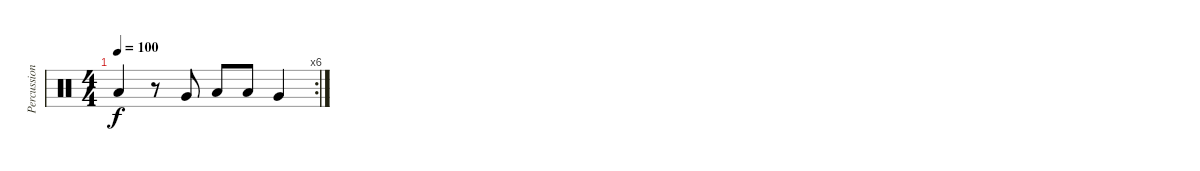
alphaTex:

\track ("Percussions" "Percussion") {instrument percussion}
\staff {score}
\articulation defaults
\rc 6
\ts (4 4)
\tempo 100
\clef neutral
\ks c "Low Floor Tom (hit)".4{dy f}
r.8 "Very Low Tom (hit)".8 "Low Tom (hit)".8 "Low Tom (hit)".8 "Very Low Tom (hit)".4
